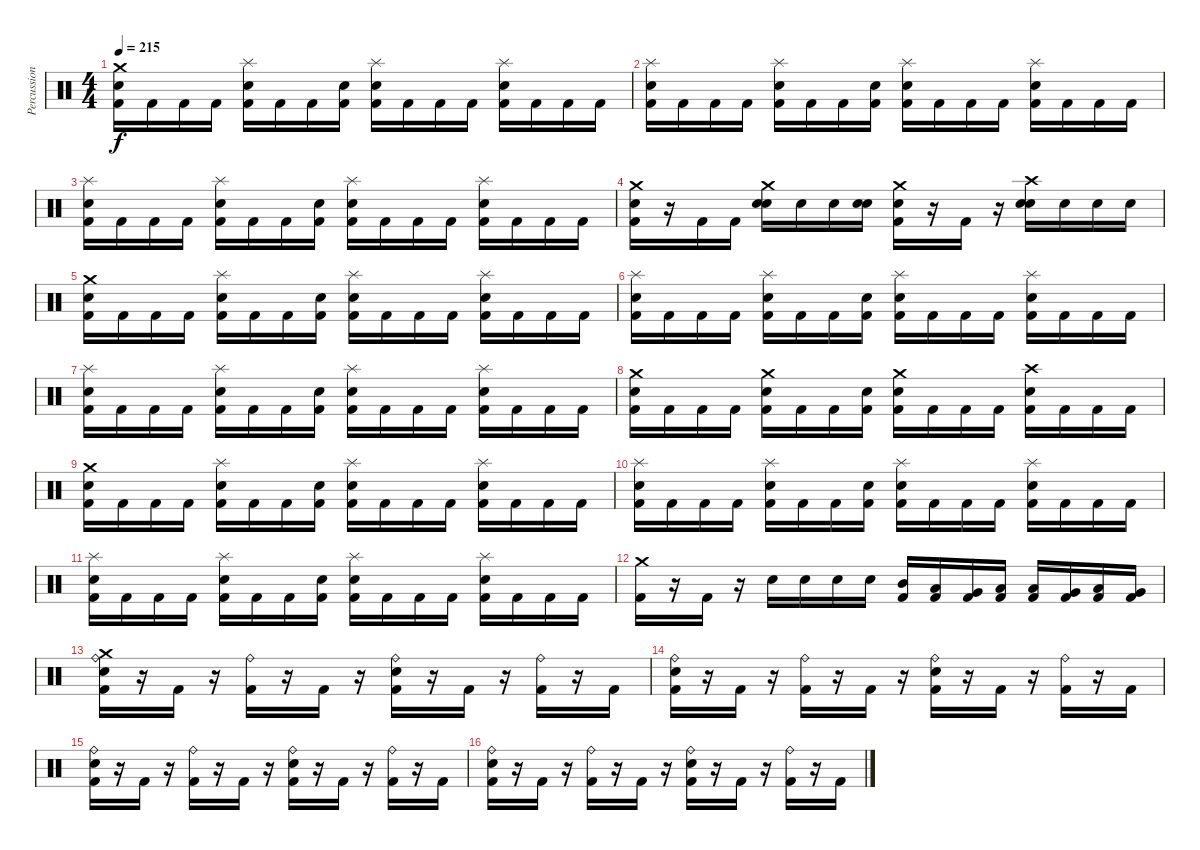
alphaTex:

\track ("Percussion" "Percussion") {instrument percussion}
\staff {score}
\articulation defaults
\ts (4 4)
\tempo 215
\clef neutral
\ks c
("Crash medium (hit)" "Snare (hit) 2" "Kick (hit) 2").16{dy f} "Kick (hit) 2".16 "Kick (hit) 2".16 "Kick (hit) 2".16 ("Splash (hit)" "Snare (hit) 2" "Kick (hit) 2").16 "Kick (hit) 2".16 "Kick (hit) 2".16 ("Snare (hit)" "Kick (hit) 2").16 ("Splash (hit)" "Snare (hit) 2" "Kick (hit) 2").16 "Kick (hit) 2".16 "Kick (hit) 2".16 "Kick (hit) 2".16 ("Splash (hit)" "Snare (hit) 2" "Kick (hit) 2").16 "Kick (hit) 2".16 "Kick (hit) 2".16 "Kick (hit) 2".16 |
("Splash (hit)" "Snare (hit) 2" "Kick (hit) 2").16 "Kick (hit) 2".16 "Kick (hit) 2".16 "Kick (hit) 2".16 ("Splash (hit)" "Snare (hit) 2" "Kick (hit) 2").16 "Kick (hit) 2".16 "Kick (hit) 2".16 ("Snare (hit)" "Kick (hit) 2").16 ("Splash (hit)" "Snare (hit) 2" "Kick (hit) 2").16 "Kick (hit) 2".16 "Kick (hit) 2".16 "Kick (hit) 2".16 ("Splash (hit)" "Snare (hit) 2" "Kick (hit) 2").16 "Kick (hit) 2".16 "Kick (hit) 2".16 "Kick (hit) 2".16 |
("Splash (hit)" "Snare (hit) 2" "Kick (hit) 2").16 "Kick (hit) 2".16 "Kick (hit) 2".16 "Kick (hit) 2".16 ("Splash (hit)" "Snare (hit) 2" "Kick (hit) 2").16 "Kick (hit) 2".16 "Kick (hit) 2".16 ("Snare (hit)" "Kick (hit) 2").16 ("Splash (hit)" "Snare (hit) 2" "Kick (hit) 2").16 "Kick (hit) 2".16 "Kick (hit) 2".16 "Kick (hit) 2".16 ("Splash (hit)" "Snare (hit) 2" "Kick (hit) 2").16 "Kick (hit) 2".16 "Kick (hit) 2".16 "Kick (hit) 2".16 |
("Crash medium (hit)" "Snare (hit) 2" "Kick (hit) 2").16 r.16 "Kick (hit) 2".16 "Kick (hit) 2".16 ("Crash medium (hit)" "Snare (hit) 2" "Snare (hit) 2").16 "Snare (hit) 2".16 "Snare (hit) 2".16 ("Snare (hit)" "Snare (hit) 2").16 ("Crash medium (hit)" "Snare (hit) 2" "Kick (hit) 2").16 r.16 "Kick (hit) 2".16 r.16 ("Crash high (hit)" "Snare (hit) 2" "Snare (hit) 2").16 "Snare (hit) 2".16 "Snare (hit) 2".16 "Snare (hit) 2".16 |
("Crash medium (hit)" "Snare (hit) 2" "Kick (hit) 2").16 "Kick (hit) 2".16 "Kick (hit) 2".16 "Kick (hit) 2".16 ("Splash (hit)" "Snare (hit) 2" "Kick (hit) 2").16 "Kick (hit) 2".16 "Kick (hit) 2".16 ("Snare (hit)" "Kick (hit) 2").16 ("Splash (hit)" "Snare (hit) 2" "Kick (hit) 2").16 "Kick (hit) 2".16 "Kick (hit) 2".16 "Kick (hit) 2".16 ("Splash (hit)" "Snare (hit) 2" "Kick (hit) 2").16 "Kick (hit) 2".16 "Kick (hit) 2".16 "Kick (hit) 2".16 |
("Splash (hit)" "Snare (hit) 2" "Kick (hit) 2").16 "Kick (hit) 2".16 "Kick (hit) 2".16 "Kick (hit) 2".16 ("Splash (hit)" "Snare (hit) 2" "Kick (hit) 2").16 "Kick (hit) 2".16 "Kick (hit) 2".16 ("Snare (hit)" "Kick (hit) 2").16 ("Splash (hit)" "Snare (hit) 2" "Kick (hit) 2").16 "Kick (hit) 2".16 "Kick (hit) 2".16 "Kick (hit) 2".16 ("Splash (hit)" "Snare (hit) 2" "Kick (hit) 2").16 "Kick (hit) 2".16 "Kick (hit) 2".16 "Kick (hit) 2".16 |
("Splash (hit)" "Snare (hit) 2" "Kick (hit) 2").16 "Kick (hit) 2".16 "Kick (hit) 2".16 "Kick (hit) 2".16 ("Splash (hit)" "Snare (hit) 2" "Kick (hit) 2").16 "Kick (hit) 2".16 "Kick (hit) 2".16 ("Snare (hit)" "Kick (hit) 2").16 ("Splash (hit)" "Snare (hit) 2" "Kick (hit) 2").16 "Kick (hit) 2".16 "Kick (hit) 2".16 "Kick (hit) 2".16 ("Splash (hit)" "Snare (hit) 2" "Kick (hit) 2").16 "Kick (hit) 2".16 "Kick (hit) 2".16 "Kick (hit) 2".16 |
("Crash medium (hit)" "Snare (hit) 2" "Kick (hit) 2").16 "Kick (hit) 2".16 "Kick (hit) 2".16 "Kick (hit) 2".16 ("Crash medium (hit)" "Snare (hit) 2" "Kick (hit) 2").16 "Kick (hit) 2".16 "Kick (hit) 2".16 ("Snare (hit)" "Kick (hit) 2").16 ("Crash medium (hit)" "Snare (hit) 2" "Kick (hit) 2").16 "Kick (hit) 2".16 "Kick (hit) 2".16 "Kick (hit) 2".16 ("Crash high (hit)" "Snare (hit) 2" "Kick (hit) 2").16 "Kick (hit) 2".16 "Kick (hit) 2".16 "Kick (hit) 2".16 |
("Crash medium (hit)" "Snare (hit) 2" "Kick (hit) 2").16 "Kick (hit) 2".16 "Kick (hit) 2".16 "Kick (hit) 2".16 ("Splash (hit)" "Snare (hit) 2" "Kick (hit) 2").16 "Kick (hit) 2".16 "Kick (hit) 2".16 ("Snare (hit)" "Kick (hit) 2").16 ("Splash (hit)" "Snare (hit) 2" "Kick (hit) 2").16 "Kick (hit) 2".16 "Kick (hit) 2".16 "Kick (hit) 2".16 ("Splash (hit)" "Snare (hit) 2" "Kick (hit) 2").16 "Kick (hit) 2".16 "Kick (hit) 2".16 "Kick (hit) 2".16 |
("Splash (hit)" "Snare (hit) 2" "Kick (hit) 2").16 "Kick (hit) 2".16 "Kick (hit) 2".16 "Kick (hit) 2".16 ("Splash (hit)" "Snare (hit) 2" "Kick (hit) 2").16 "Kick (hit) 2".16 "Kick (hit) 2".16 ("Snare (hit)" "Kick (hit) 2").16 ("Splash (hit)" "Snare (hit) 2" "Kick (hit) 2").16 "Kick (hit) 2".16 "Kick (hit) 2".16 "Kick (hit) 2".16 ("Splash (hit)" "Snare (hit) 2" "Kick (hit) 2").16 "Kick (hit) 2".16 "Kick (hit) 2".16 "Kick (hit) 2".16 |
("Splash (hit)" "Snare (hit) 2" "Kick (hit) 2").16 "Kick (hit) 2".16 "Kick (hit) 2".16 "Kick (hit) 2".16 ("Splash (hit)" "Snare (hit) 2" "Kick (hit) 2").16 "Kick (hit) 2".16 "Kick (hit) 2".16 ("Snare (hit)" "Kick (hit) 2").16 ("Splash (hit)" "Snare (hit) 2" "Kick (hit) 2").16 "Kick (hit) 2".16 "Kick (hit) 2".16 "Kick (hit) 2".16 ("Splash (hit)" "Snare (hit) 2" "Kick (hit) 2").16 "Kick (hit) 2".16 "Kick (hit) 2".16 "Kick (hit) 2".16 |
("Crash medium (hit)" "Kick (hit) 2").16 r.16 "Kick (hit) 2".16 r.16 "Snare (hit) 2".16 "Snare (hit) 2".16 "Snare (hit) 2".16 "Snare (hit) 2".16 ("Mid Tom (hit)" "Kick (hit) 2").16 ("Low Tom (hit)" "Kick (hit) 2").16 ("Very Low Tom (hit)" "Kick (hit) 2").16 ("Low Floor Tom (hit)" "Kick (hit) 2").16 ("Low Tom (hit)" "Kick (hit) 2").16 ("Very Low Tom (hit)" "Kick (hit) 2").16 ("Low Floor Tom (hit)" "Kick (hit) 2").16 ("Very Low Tom (hit)" "Kick (hit) 2").16 |
("Crash medium (hit)" "Ride (bell)" "Snare (hit) 2" "Kick (hit) 2").16 r.16 "Kick (hit) 2".16 r.16 ("Ride (bell)" "Kick (hit) 2").16 r.16 "Kick (hit) 2".16 r.16 ("Ride (bell)" "Snare (hit) 2" "Kick (hit) 2").16 r.16 "Kick (hit) 2".16 r.16 ("Ride (bell)" "Kick (hit) 2").16 r.16 "Kick (hit) 2".16 |
("Ride (bell)" "Snare (hit) 2" "Kick (hit) 2").16 r.16 "Kick (hit) 2".16 r.16 ("Ride (bell)" "Kick (hit) 2").16 r.16 "Kick (hit) 2".16 r.16 ("Ride (bell)" "Snare (hit) 2" "Kick (hit) 2").16 r.16 "Kick (hit) 2".16 r.16 ("Ride (bell)" "Kick (hit) 2").16 r.16 "Kick (hit) 2".16 |
("Ride (bell)" "Snare (hit) 2" "Kick (hit) 2").16 r.16 "Kick (hit) 2".16 r.16 ("Ride (bell)" "Kick (hit) 2").16 r.16 "Kick (hit) 2".16 r.16 ("Ride (bell)" "Snare (hit) 2" "Kick (hit) 2").16 r.16 "Kick (hit) 2".16 r.16 ("Ride (bell)" "Kick (hit) 2").16 r.16 "Kick (hit) 2".16 |
("Ride (bell)" "Snare (hit) 2" "Kick (hit) 2").16 r.16 "Kick (hit) 2".16 r.16 ("Ride (bell)" "Kick (hit) 2").16 r.16 "Kick (hit) 2".16 r.16 ("Ride (bell)" "Snare (hit) 2" "Kick (hit) 2").16 r.16 "Kick (hit) 2".16 r.16 ("Ride (bell)" "Kick (hit) 2").16 r.16 "Kick (hit) 2".16
